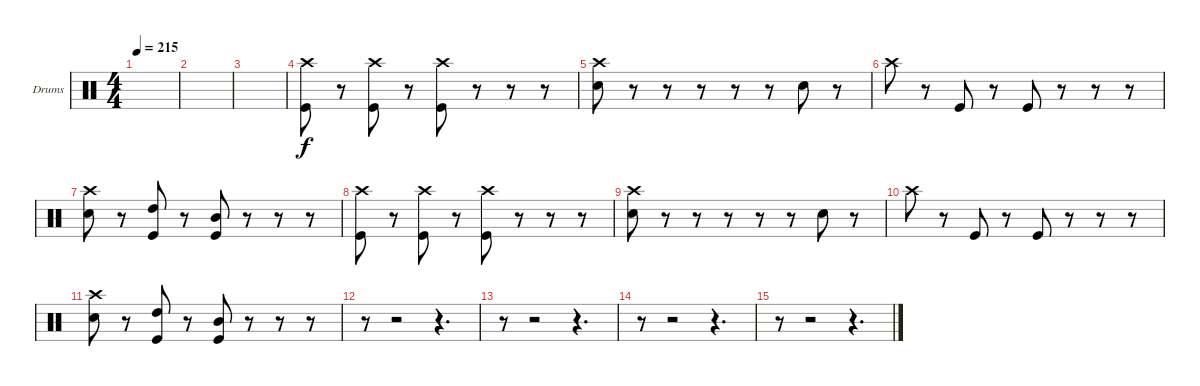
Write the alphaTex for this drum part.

\bracketExtendMode groupsimilarinstruments
\firstSystemTrackNameOrientation horizontal
\otherSystemsTrackNameOrientation horizontal
\track ("Dave McClain" "Drums") {instrument percussion}
\staff {score}
\articulation defaults
\ts (4 4)
\tempo 215
\clef neutral
\ks c
|
|
|
("Crash high (hit)" "Kick (hit)").8 r.8 ("Crash high (hit)" "Kick (hit)").8 r.8 ("Crash high (hit)" "Kick (hit)").8 r.8 r.8 r.8 |
("Crash high (hit)" "Snare (hit) 2").8 r.8 r.8 r.8 r.8 r.8 "Snare (hit) 2".8 r.8 |
"Crash high (hit)".8 r.8 "Kick (hit)".8 r.8 "Kick (hit)".8 r.8 r.8 r.8 |
("Crash high (hit)" "Snare (hit) 2").8 r.8 ("High Tom (hit)" "Kick (hit)").8 r.8 ("Mid Tom (hit)" "Kick (hit)").8 r.8 r.8 r.8 |
("Crash high (hit)" "Kick (hit)").8 r.8 ("Crash high (hit)" "Kick (hit)").8 r.8 ("Crash high (hit)" "Kick (hit)").8 r.8 r.8 r.8 |
("Crash high (hit)" "Snare (hit) 2").8 r.8 r.8 r.8 r.8 r.8 "Snare (hit) 2".8 r.8 |
"Crash high (hit)".8 r.8 "Kick (hit)".8 r.8 "Kick (hit)".8 r.8 r.8 r.8 |
("Crash high (hit)" "Snare (hit) 2").8 r.8 ("High Tom (hit)" "Kick (hit)").8 r.8 ("Mid Tom (hit)" "Kick (hit)").8 r.8 r.8 r.8 |
r.8 r.2 r.4{d} |
r.8 r.2 r.4{d} |
r.8 r.2 r.4{d} |
r.8 r.2 r.4{d}
